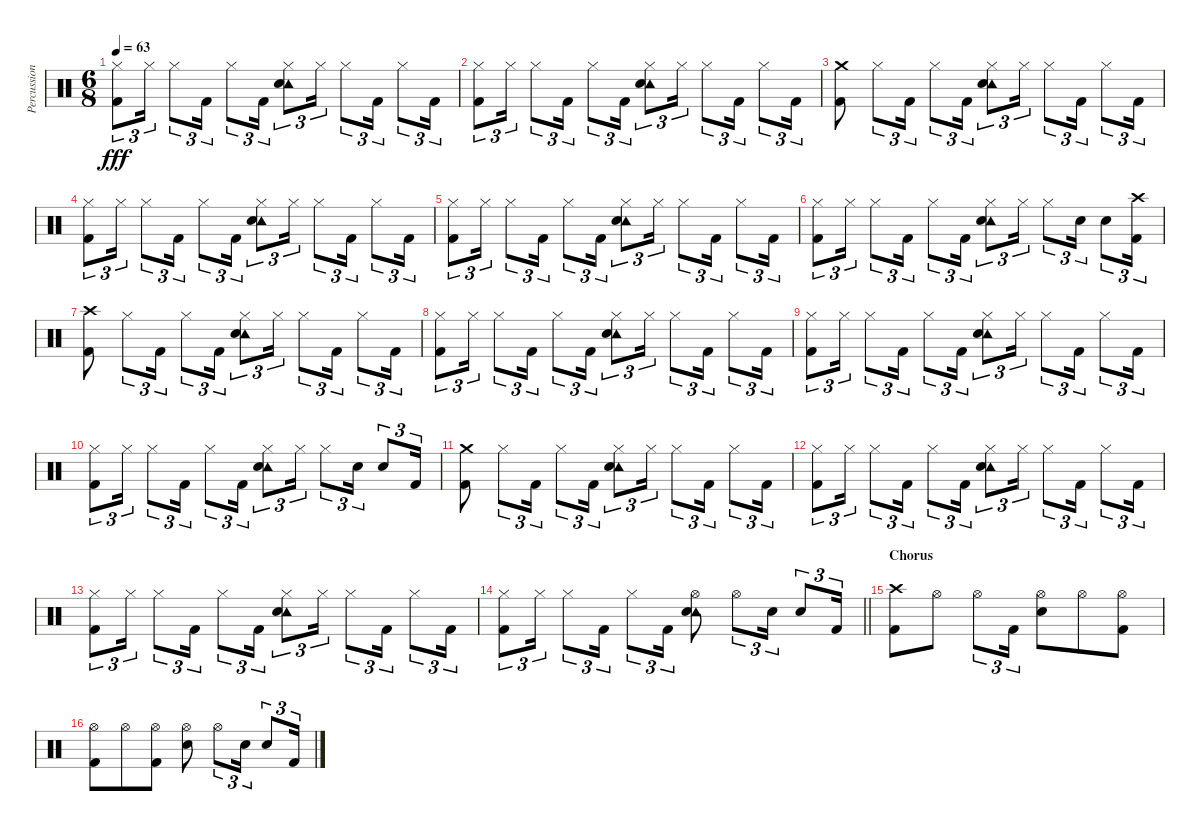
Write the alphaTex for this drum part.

\track ("Percussion" "Percussion") {instrument percussion}
\staff {score}
\articulation defaults
\ts (6 8)
\tempo 63
\clef neutral
\ks c
("Hi-Hat (closed)" "Kick (hit) 2").8{tu (3 2) dy fff} "Hi-Hat (closed)".16{tu (3 2)} "Hi-Hat (closed)".8{tu (3 2)} "Kick (hit) 2".16{tu (3 2)} "Hi-Hat (closed)".8{tu (3 2)} "Kick (hit) 2".16{tu (3 2)} ("Hi-Hat (closed)" "Tambourine (hit)" "Electric Snare (hit)").8{tu (3 2)} "Hi-Hat (closed)".16{tu (3 2)} "Hi-Hat (closed)".8{tu (3 2)} "Kick (hit) 2".16{tu (3 2)} "Hi-Hat (closed)".8{tu (3 2)} "Kick (hit) 2".16{tu (3 2)} |
("Hi-Hat (closed)" "Kick (hit) 2").8{tu (3 2)} "Hi-Hat (closed)".16{tu (3 2)} "Hi-Hat (closed)".8{tu (3 2)} "Kick (hit) 2".16{tu (3 2)} "Hi-Hat (closed)".8{tu (3 2)} "Kick (hit) 2".16{tu (3 2)} ("Hi-Hat (closed)" "Tambourine (hit)" "Electric Snare (hit)").8{tu (3 2)} "Hi-Hat (closed)".16{tu (3 2)} "Hi-Hat (closed)".8{tu (3 2)} "Kick (hit) 2".16{tu (3 2)} "Hi-Hat (closed)".8{tu (3 2)} "Kick (hit) 2".16{tu (3 2)} |
("Crash medium (hit)" "Kick (hit) 2").8 "Hi-Hat (closed)".8{tu (3 2)} "Kick (hit) 2".16{tu (3 2)} "Hi-Hat (closed)".8{tu (3 2)} "Kick (hit) 2".16{tu (3 2)} ("Hi-Hat (closed)" "Tambourine (hit)" "Electric Snare (hit)").8{tu (3 2)} "Hi-Hat (closed)".16{tu (3 2)} "Hi-Hat (closed)".8{tu (3 2)} "Kick (hit) 2".16{tu (3 2)} "Hi-Hat (closed)".8{tu (3 2)} "Kick (hit) 2".16{tu (3 2)} |
("Hi-Hat (closed)" "Kick (hit) 2").8{tu (3 2)} "Hi-Hat (closed)".16{tu (3 2)} "Hi-Hat (closed)".8{tu (3 2)} "Kick (hit) 2".16{tu (3 2)} "Hi-Hat (closed)".8{tu (3 2)} "Kick (hit) 2".16{tu (3 2)} ("Hi-Hat (closed)" "Tambourine (hit)" "Electric Snare (hit)").8{tu (3 2)} "Hi-Hat (closed)".16{tu (3 2)} "Hi-Hat (closed)".8{tu (3 2)} "Kick (hit) 2".16{tu (3 2)} "Hi-Hat (closed)".8{tu (3 2)} "Kick (hit) 2".16{tu (3 2)} |
("Hi-Hat (closed)" "Kick (hit) 2").8{tu (3 2)} "Hi-Hat (closed)".16{tu (3 2)} "Hi-Hat (closed)".8{tu (3 2)} "Kick (hit) 2".16{tu (3 2)} "Hi-Hat (closed)".8{tu (3 2)} "Kick (hit) 2".16{tu (3 2)} ("Hi-Hat (closed)" "Tambourine (hit)" "Electric Snare (hit)").8{tu (3 2)} "Hi-Hat (closed)".16{tu (3 2)} "Hi-Hat (closed)".8{tu (3 2)} "Kick (hit) 2".16{tu (3 2)} "Hi-Hat (closed)".8{tu (3 2)} "Kick (hit) 2".16{tu (3 2)} |
("Hi-Hat (closed)" "Kick (hit) 2").8{tu (3 2)} "Hi-Hat (closed)".16{tu (3 2)} "Hi-Hat (closed)".8{tu (3 2)} "Kick (hit) 2".16{tu (3 2)} "Hi-Hat (closed)".8{tu (3 2)} "Kick (hit) 2".16{tu (3 2)} ("Hi-Hat (closed)" "Tambourine (hit)" "Electric Snare (hit)").8{tu (3 2)} "Hi-Hat (closed)".16{tu (3 2)} "Hi-Hat (closed)".8{tu (3 2)} "Electric Snare (hit)".16{tu (3 2)} "Electric Snare (hit)".8{tu (3 2)} ("Crash high (hit)" "Kick (hit) 2").16{tu (3 2)} |
("Crash high (hit)" "Kick (hit) 2").8 "Hi-Hat (closed)".8{tu (3 2)} "Kick (hit) 2".16{tu (3 2)} "Hi-Hat (closed)".8{tu (3 2)} "Kick (hit) 2".16{tu (3 2)} ("Hi-Hat (closed)" "Tambourine (hit)" "Electric Snare (hit)").8{tu (3 2)} "Hi-Hat (closed)".16{tu (3 2)} "Hi-Hat (closed)".8{tu (3 2)} "Kick (hit) 2".16{tu (3 2)} "Hi-Hat (closed)".8{tu (3 2)} "Kick (hit) 2".16{tu (3 2)} |
("Hi-Hat (closed)" "Kick (hit) 2").8{tu (3 2)} "Hi-Hat (closed)".16{tu (3 2)} "Hi-Hat (closed)".8{tu (3 2)} "Kick (hit) 2".16{tu (3 2)} "Hi-Hat (closed)".8{tu (3 2)} "Kick (hit) 2".16{tu (3 2)} ("Hi-Hat (closed)" "Tambourine (hit)" "Electric Snare (hit)").8{tu (3 2)} "Hi-Hat (closed)".16{tu (3 2)} "Hi-Hat (closed)".8{tu (3 2)} "Kick (hit) 2".16{tu (3 2)} "Hi-Hat (closed)".8{tu (3 2)} "Kick (hit) 2".16{tu (3 2)} |
("Hi-Hat (closed)" "Kick (hit) 2").8{tu (3 2)} "Hi-Hat (closed)".16{tu (3 2)} "Hi-Hat (closed)".8{tu (3 2)} "Kick (hit) 2".16{tu (3 2)} "Hi-Hat (closed)".8{tu (3 2)} "Kick (hit) 2".16{tu (3 2)} ("Hi-Hat (closed)" "Tambourine (hit)" "Electric Snare (hit)").8{tu (3 2)} "Hi-Hat (closed)".16{tu (3 2)} "Hi-Hat (closed)".8{tu (3 2)} "Kick (hit) 2".16{tu (3 2)} "Hi-Hat (closed)".8{tu (3 2)} "Kick (hit) 2".16{tu (3 2)} |
("Hi-Hat (closed)" "Kick (hit) 2").8{tu (3 2)} "Hi-Hat (closed)".16{tu (3 2)} "Hi-Hat (closed)".8{tu (3 2)} "Kick (hit) 2".16{tu (3 2)} "Hi-Hat (closed)".8{tu (3 2)} "Kick (hit) 2".16{tu (3 2)} ("Hi-Hat (closed)" "Tambourine (hit)" "Electric Snare (hit)").8{tu (3 2)} "Hi-Hat (closed)".16{tu (3 2)} "Hi-Hat (closed)".8{tu (3 2)} "Electric Snare (hit)".16{tu (3 2)} "Electric Snare (hit)".8{tu (3 2)} "Kick (hit) 2".16{tu (3 2)} |
("Crash medium (hit)" "Kick (hit) 2").8 "Hi-Hat (closed)".8{tu (3 2)} "Kick (hit) 2".16{tu (3 2)} "Hi-Hat (closed)".8{tu (3 2)} "Kick (hit) 2".16{tu (3 2)} ("Hi-Hat (closed)" "Tambourine (hit)" "Electric Snare (hit)").8{tu (3 2)} "Hi-Hat (closed)".16{tu (3 2)} "Hi-Hat (closed)".8{tu (3 2)} "Kick (hit) 2".16{tu (3 2)} "Hi-Hat (closed)".8{tu (3 2)} "Kick (hit) 2".16{tu (3 2)} |
("Hi-Hat (closed)" "Kick (hit) 2").8{tu (3 2)} "Hi-Hat (closed)".16{tu (3 2)} "Hi-Hat (closed)".8{tu (3 2)} "Kick (hit) 2".16{tu (3 2)} "Hi-Hat (closed)".8{tu (3 2)} "Kick (hit) 2".16{tu (3 2)} ("Hi-Hat (closed)" "Tambourine (hit)" "Electric Snare (hit)").8{tu (3 2)} "Hi-Hat (closed)".16{tu (3 2)} "Hi-Hat (closed)".8{tu (3 2)} "Kick (hit) 2".16{tu (3 2)} "Hi-Hat (closed)".8{tu (3 2)} "Kick (hit) 2".16{tu (3 2)} |
("Hi-Hat (closed)" "Kick (hit) 2").8{tu (3 2)} "Hi-Hat (closed)".16{tu (3 2)} "Hi-Hat (closed)".8{tu (3 2)} "Kick (hit) 2".16{tu (3 2)} "Hi-Hat (closed)".8{tu (3 2)} "Kick (hit) 2".16{tu (3 2)} ("Hi-Hat (closed)" "Tambourine (hit)" "Electric Snare (hit)").8{tu (3 2)} "Hi-Hat (closed)".16{tu (3 2)} "Hi-Hat (closed)".8{tu (3 2)} "Kick (hit) 2".16{tu (3 2)} "Hi-Hat (closed)".8{tu (3 2)} "Kick (hit) 2".16{tu (3 2)} |
\barLineRight lightlight
("Hi-Hat (closed)" "Kick (hit) 2").8{tu (3 2)} "Hi-Hat (closed)".16{tu (3 2)} "Hi-Hat (closed)".8{tu (3 2)} "Kick (hit) 2".16{tu (3 2)} "Hi-Hat (closed)".8{tu (3 2)} "Kick (hit) 2".16{tu (3 2)} ("Hi-Hat (open)" "Tambourine (hit)" "Electric Snare (hit)").8 "Hi-Hat (open)".8{tu (3 2)} "Electric Snare (hit)".16{tu (3 2)} "Electric Snare (hit)".8{tu (3 2)} "Kick (hit) 2".16{tu (3 2)} |
\section ("" "Chorus")
("Crash high (hit)" "Kick (hit) 2").8 "Hi-Hat (open)".8 "Hi-Hat (open)".8{tu (3 2)} "Kick (hit) 2".16{tu (3 2)} ("Hi-Hat (open)" "Electric Snare (hit)").8 "Hi-Hat (open)".8 ("Hi-Hat (open)" "Kick (hit) 2").8 |
("Hi-Hat (open)" "Kick (hit) 2").8 "Hi-Hat (open)".8 ("Hi-Hat (open)" "Kick (hit) 2").8 ("Hi-Hat (open)" "Electric Snare (hit)").8 "Hi-Hat (open)".8{tu (3 2)} "Electric Snare (hit)".16{tu (3 2)} "Electric Snare (hit)".8{tu (3 2)} "Kick (hit) 2".16{tu (3 2)}
